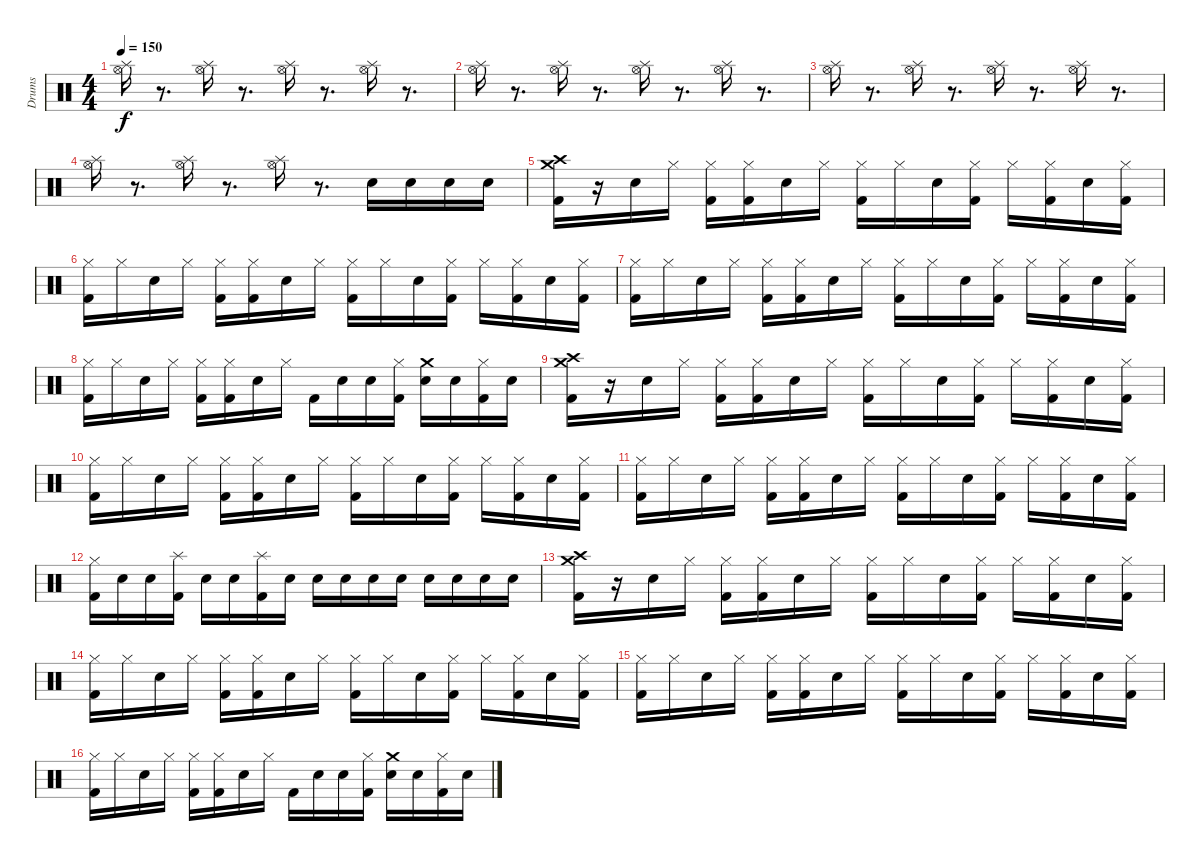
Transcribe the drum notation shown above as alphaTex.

\track ("Drums" "Drums") {instrument percussion}
\staff {score}
\articulation defaults
\ts (4 4)
\section ("" "")
\tempo 150
\clef neutral
\ks c
("Splash (hit)" "Hi-Hat (open)").16{dy f volume 13} r.8{d} ("Splash (hit)" "Hi-Hat (open)").16 r.8{d} ("Splash (hit)" "Hi-Hat (open)").16 r.8{d} ("Splash (hit)" "Hi-Hat (open)").16 r.8{d} |
("Splash (hit)" "Hi-Hat (open)").16 r.8{d} ("Splash (hit)" "Hi-Hat (open)").16 r.8{d} ("Splash (hit)" "Hi-Hat (open)").16 r.8{d} ("Splash (hit)" "Hi-Hat (open)").16 r.8{d} |
("Splash (hit)" "Hi-Hat (open)").16 r.8{d} ("Splash (hit)" "Hi-Hat (open)").16 r.8{d} ("Splash (hit)" "Hi-Hat (open)").16 r.8{d} ("Splash (hit)" "Hi-Hat (open)").16 r.8{d} |
("Splash (hit)" "Hi-Hat (open)").16 r.8{d} ("Splash (hit)" "Hi-Hat (open)").16 r.8{d} ("Splash (hit)" "Hi-Hat (open)").16 r.8{d} "Snare (hit) 2".16 "Snare (hit) 2".16 "Snare (hit) 2".16 "Snare (hit) 2".16 |
("Crash medium (hit)" "Crash high (hit)" "Kick (hit) 2").16 r.16 "Snare (hit) 2".16 "Hi-Hat (closed)".16 ("Hi-Hat (closed)" "Kick (hit) 2").16 ("Hi-Hat (closed)" "Kick (hit) 2").16 "Snare (hit) 2".16 "Hi-Hat (closed)".16 ("Hi-Hat (closed)" "Kick (hit) 2").16 "Hi-Hat (closed)".16 "Snare (hit) 2".16 ("Hi-Hat (closed)" "Kick (hit) 2").16 "Hi-Hat (closed)".16 ("Hi-Hat (closed)" "Kick (hit) 2").16 "Snare (hit) 2".16 ("Hi-Hat (closed)" "Kick (hit) 2").16 |
("Hi-Hat (closed)" "Kick (hit) 2").16 "Hi-Hat (closed)".16 "Snare (hit) 2".16 "Hi-Hat (closed)".16 ("Hi-Hat (closed)" "Kick (hit) 2").16 ("Hi-Hat (closed)" "Kick (hit) 2").16 "Snare (hit) 2".16 "Hi-Hat (closed)".16 ("Hi-Hat (closed)" "Kick (hit) 2").16 "Hi-Hat (closed)".16 "Snare (hit) 2".16 ("Hi-Hat (closed)" "Kick (hit) 2").16 "Hi-Hat (closed)".16 ("Hi-Hat (closed)" "Kick (hit) 2").16 "Snare (hit) 2".16 ("Hi-Hat (closed)" "Kick (hit) 2").16 |
("Hi-Hat (closed)" "Kick (hit) 2").16 "Hi-Hat (closed)".16 "Snare (hit) 2".16 "Hi-Hat (closed)".16 ("Hi-Hat (closed)" "Kick (hit) 2").16 ("Hi-Hat (closed)" "Kick (hit) 2").16 "Snare (hit) 2".16 "Hi-Hat (closed)".16 ("Hi-Hat (closed)" "Kick (hit) 2").16 "Hi-Hat (closed)".16 "Snare (hit) 2".16 ("Hi-Hat (closed)" "Kick (hit) 2").16 "Hi-Hat (closed)".16 ("Hi-Hat (closed)" "Kick (hit) 2").16 "Snare (hit) 2".16 ("Hi-Hat (closed)" "Kick (hit) 2").16 |
("Hi-Hat (closed)" "Kick (hit) 2").16 "Hi-Hat (closed)".16 "Snare (hit) 2".16 "Hi-Hat (closed)".16 ("Hi-Hat (closed)" "Kick (hit) 2").16 ("Hi-Hat (closed)" "Kick (hit) 2").16 "Snare (hit) 2".16 "Hi-Hat (closed)".16 "Kick (hit) 2".16 "Snare (hit) 2".16 "Snare (hit) 2".16 ("Hi-Hat (closed)" "Kick (hit) 2").16 ("Crash medium (hit)" "Snare (hit) 2").16 "Snare (hit) 2".16 ("Hi-Hat (closed)" "Kick (hit) 2").16 "Snare (hit) 2".16 |
("Crash medium (hit)" "Crash high (hit)" "Kick (hit) 2").16 r.16 "Snare (hit) 2".16 "Hi-Hat (closed)".16 ("Hi-Hat (closed)" "Kick (hit) 2").16 ("Hi-Hat (closed)" "Kick (hit) 2").16 "Snare (hit) 2".16 "Hi-Hat (closed)".16 ("Hi-Hat (closed)" "Kick (hit) 2").16 "Hi-Hat (closed)".16 "Snare (hit) 2".16 ("Hi-Hat (closed)" "Kick (hit) 2").16 "Hi-Hat (closed)".16 ("Hi-Hat (closed)" "Kick (hit) 2").16 "Snare (hit) 2".16 ("Hi-Hat (closed)" "Kick (hit) 2").16 |
("Hi-Hat (closed)" "Kick (hit) 2").16 "Hi-Hat (closed)".16 "Snare (hit) 2".16 "Hi-Hat (closed)".16 ("Hi-Hat (closed)" "Kick (hit) 2").16 ("Hi-Hat (closed)" "Kick (hit) 2").16 "Snare (hit) 2".16 "Hi-Hat (closed)".16 ("Hi-Hat (closed)" "Kick (hit) 2").16 "Hi-Hat (closed)".16 "Snare (hit) 2".16 ("Hi-Hat (closed)" "Kick (hit) 2").16 "Hi-Hat (closed)".16 ("Hi-Hat (closed)" "Kick (hit) 2").16 "Snare (hit) 2".16 ("Hi-Hat (closed)" "Kick (hit) 2").16 |
("Hi-Hat (closed)" "Kick (hit) 2").16 "Hi-Hat (closed)".16 "Snare (hit) 2".16 "Hi-Hat (closed)".16 ("Hi-Hat (closed)" "Kick (hit) 2").16 ("Hi-Hat (closed)" "Kick (hit) 2").16 "Snare (hit) 2".16 "Hi-Hat (closed)".16 ("Hi-Hat (closed)" "Kick (hit) 2").16 "Hi-Hat (closed)".16 "Snare (hit) 2".16 ("Hi-Hat (closed)" "Kick (hit) 2").16 "Hi-Hat (closed)".16 ("Hi-Hat (closed)" "Kick (hit) 2").16 "Snare (hit) 2".16 ("Hi-Hat (closed)" "Kick (hit) 2").16 |
("Hi-Hat (closed)" "Kick (hit) 2").16 "Snare (hit) 2".16 "Snare (hit) 2".16 ("Splash (hit)" "Kick (hit) 2").16 "Snare (hit) 2".16 "Snare (hit) 2".16 ("Splash (hit)" "Kick (hit) 2").16 "Snare (hit) 2".16 "Snare (hit) 2".16 "Snare (hit) 2".16 "Snare (hit) 2".16 "Snare (hit) 2".16 "Snare (hit) 2".16 "Snare (hit) 2".16 "Snare (hit) 2".16 "Snare (hit) 2".16 |
("Crash medium (hit)" "Crash high (hit)" "Kick (hit) 2").16 r.16 "Snare (hit) 2".16 "Hi-Hat (closed)".16 ("Hi-Hat (closed)" "Kick (hit) 2").16 ("Hi-Hat (closed)" "Kick (hit) 2").16 "Snare (hit) 2".16 "Hi-Hat (closed)".16 ("Hi-Hat (closed)" "Kick (hit) 2").16 "Hi-Hat (closed)".16 "Snare (hit) 2".16 ("Hi-Hat (closed)" "Kick (hit) 2").16 "Hi-Hat (closed)".16 ("Hi-Hat (closed)" "Kick (hit) 2").16 "Snare (hit) 2".16 ("Hi-Hat (closed)" "Kick (hit) 2").16 |
("Hi-Hat (closed)" "Kick (hit) 2").16 "Hi-Hat (closed)".16 "Snare (hit) 2".16 "Hi-Hat (closed)".16 ("Hi-Hat (closed)" "Kick (hit) 2").16 ("Hi-Hat (closed)" "Kick (hit) 2").16 "Snare (hit) 2".16 "Hi-Hat (closed)".16 ("Hi-Hat (closed)" "Kick (hit) 2").16 "Hi-Hat (closed)".16 "Snare (hit) 2".16 ("Hi-Hat (closed)" "Kick (hit) 2").16 "Hi-Hat (closed)".16 ("Hi-Hat (closed)" "Kick (hit) 2").16 "Snare (hit) 2".16 ("Hi-Hat (closed)" "Kick (hit) 2").16 |
("Hi-Hat (closed)" "Kick (hit) 2").16 "Hi-Hat (closed)".16 "Snare (hit) 2".16 "Hi-Hat (closed)".16 ("Hi-Hat (closed)" "Kick (hit) 2").16 ("Hi-Hat (closed)" "Kick (hit) 2").16 "Snare (hit) 2".16 "Hi-Hat (closed)".16 ("Hi-Hat (closed)" "Kick (hit) 2").16 "Hi-Hat (closed)".16 "Snare (hit) 2".16 ("Hi-Hat (closed)" "Kick (hit) 2").16 "Hi-Hat (closed)".16 ("Hi-Hat (closed)" "Kick (hit) 2").16 "Snare (hit) 2".16 ("Hi-Hat (closed)" "Kick (hit) 2").16 |
("Hi-Hat (closed)" "Kick (hit) 2").16 "Hi-Hat (closed)".16 "Snare (hit) 2".16 "Hi-Hat (closed)".16 ("Hi-Hat (closed)" "Kick (hit) 2").16 ("Hi-Hat (closed)" "Kick (hit) 2").16 "Snare (hit) 2".16 "Hi-Hat (closed)".16 "Kick (hit) 2".16 "Snare (hit) 2".16 "Snare (hit) 2".16 ("Hi-Hat (closed)" "Kick (hit) 2").16 ("Crash medium (hit)" "Snare (hit) 2").16 "Snare (hit) 2".16 ("Hi-Hat (closed)" "Kick (hit) 2").16 "Snare (hit) 2".16
